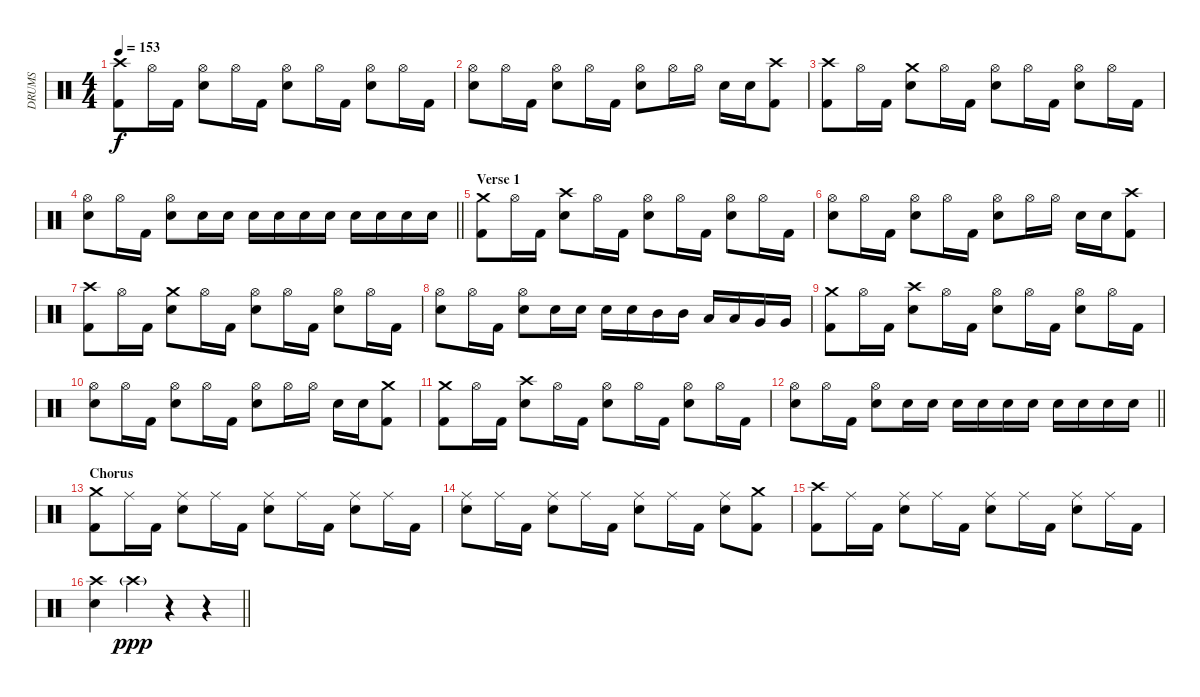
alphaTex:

\track ("DRUMS" "DRUMS") {instrument percussion}
\staff {score}
\articulation defaults
\ts (4 4)
\tempo 153
\clef neutral
\ks c
("Crash high (hit)" "Kick (hit) 2").8{dy f} "Hi-Hat (open)".16 "Kick (hit) 2".16 ("Hi-Hat (open)" "Snare (hit) 2").8 "Hi-Hat (open)".16 "Kick (hit) 2".16 ("Hi-Hat (open)" "Snare (hit) 2").8 "Hi-Hat (open)".16 "Kick (hit) 2".16 ("Hi-Hat (open)" "Snare (hit) 2").8 "Hi-Hat (open)".16 "Kick (hit) 2".16 |
("Hi-Hat (open)" "Snare (hit) 2").8 "Hi-Hat (open)".16 "Kick (hit) 2".16 ("Hi-Hat (open)" "Snare (hit) 2").8 "Hi-Hat (open)".16 "Kick (hit) 2".16 ("Hi-Hat (open)" "Snare (hit) 2").8 "Hi-Hat (open)".16 "Hi-Hat (open)".16 "Snare (hit) 2".16 "Snare (hit) 2".16 ("Crash high (hit)" "Kick (hit) 2").8 |
("Crash high (hit)" "Kick (hit) 2").8 "Hi-Hat (open)".16 "Kick (hit) 2".16 ("Crash medium (hit)" "Snare (hit) 2").8 "Hi-Hat (open)".16 "Kick (hit) 2".16 ("Hi-Hat (open)" "Snare (hit) 2").8 "Hi-Hat (open)".16 "Kick (hit) 2".16 ("Hi-Hat (open)" "Snare (hit) 2").8 "Hi-Hat (open)".16 "Kick (hit) 2".16 |
\barLineRight lightlight
("Hi-Hat (open)" "Snare (hit) 2").8 "Hi-Hat (open)".16 "Kick (hit) 2".16 ("Hi-Hat (open)" "Snare (hit) 2").8 "Snare (hit) 2".16 "Snare (hit) 2".16 "Snare (hit) 2".16 "Snare (hit) 2".16 "Snare (hit) 2".16 "Snare (hit) 2".16 "Snare (hit) 2".16 "Snare (hit) 2".16 "Snare (hit) 2".16 "Snare (hit) 2".16 |
\section ("" "Verse 1")
("Crash medium (hit)" "Kick (hit) 2").8 "Hi-Hat (open)".16 "Kick (hit) 2".16 ("Crash high (hit)" "Snare (hit) 2").8 "Hi-Hat (open)".16 "Kick (hit) 2".16 ("Hi-Hat (open)" "Snare (hit) 2").8 "Hi-Hat (open)".16 "Kick (hit) 2".16 ("Hi-Hat (open)" "Snare (hit) 2").8 "Hi-Hat (open)".16 "Kick (hit) 2".16 |
("Hi-Hat (open)" "Snare (hit) 2").8 "Hi-Hat (open)".16 "Kick (hit) 2".16 ("Hi-Hat (open)" "Snare (hit) 2").8 "Hi-Hat (open)".16 "Kick (hit) 2".16 ("Hi-Hat (open)" "Snare (hit) 2").8 "Hi-Hat (open)".16 "Hi-Hat (open)".16 "Snare (hit) 2".16 "Snare (hit) 2".16 ("Crash high (hit)" "Kick (hit) 2").8 |
("Crash high (hit)" "Kick (hit) 2").8 "Hi-Hat (open)".16 "Kick (hit) 2".16 ("Crash medium (hit)" "Snare (hit) 2").8 "Hi-Hat (open)".16 "Kick (hit) 2".16 ("Hi-Hat (open)" "Snare (hit) 2").8 "Hi-Hat (open)".16 "Kick (hit) 2".16 ("Hi-Hat (open)" "Snare (hit) 2").8 "Hi-Hat (open)".16 "Kick (hit) 2".16 |
("Hi-Hat (open)" "Snare (hit) 2").8 "Hi-Hat (open)".16 "Kick (hit) 2".16 ("Hi-Hat (open)" "Snare (hit) 2").8 "Snare (hit) 2".16 "Snare (hit) 2".16 "Snare (hit) 2".16 "Snare (hit) 2".16 "Mid Tom (hit)".16 "Mid Tom (hit)".16 "Low Tom (hit)".16 "Low Tom (hit)".16 "Very Low Tom (hit)".16 "Very Low Tom (hit)".16 |
("Crash medium (hit)" "Kick (hit) 2").8 "Hi-Hat (open)".16 "Kick (hit) 2".16 ("Crash high (hit)" "Snare (hit) 2").8 "Hi-Hat (open)".16 "Kick (hit) 2".16 ("Hi-Hat (open)" "Snare (hit) 2").8 "Hi-Hat (open)".16 "Kick (hit) 2".16 ("Hi-Hat (open)" "Snare (hit) 2").8 "Hi-Hat (open)".16 "Kick (hit) 2".16 |
("Hi-Hat (open)" "Snare (hit) 2").8 "Hi-Hat (open)".16 "Kick (hit) 2".16 ("Hi-Hat (open)" "Snare (hit) 2").8 "Hi-Hat (open)".16 "Kick (hit) 2".16 ("Hi-Hat (open)" "Snare (hit) 2").8 "Hi-Hat (open)".16 "Hi-Hat (open)".16 "Snare (hit) 2".16 "Snare (hit) 2".16 ("Crash medium (hit)" "Kick (hit) 2").8 |
("Crash medium (hit)" "Kick (hit) 2").8 "Hi-Hat (open)".16 "Kick (hit) 2".16 ("Crash high (hit)" "Snare (hit) 2").8 "Hi-Hat (open)".16 "Kick (hit) 2".16 ("Hi-Hat (open)" "Snare (hit) 2").8 "Hi-Hat (open)".16 "Kick (hit) 2".16 ("Hi-Hat (open)" "Snare (hit) 2").8 "Hi-Hat (open)".16 "Kick (hit) 2".16 |
\barLineRight lightlight
("Hi-Hat (open)" "Snare (hit) 2").8 "Hi-Hat (open)".16 "Kick (hit) 2".16 ("Hi-Hat (open)" "Snare (hit) 2").8 "Snare (hit) 2".16 "Snare (hit) 2".16 "Snare (hit) 2".16 "Snare (hit) 2".16 "Snare (hit) 2".16 "Snare (hit) 2".16 "Snare (hit) 2".16 "Snare (hit) 2".16 "Snare (hit) 2".16 "Snare (hit) 2".16 |
\section ("" "Chorus")
("Crash medium (hit)" "Kick (hit) 2").8 "Ride (middle)".16 "Kick (hit) 2".16 ("Ride (middle)" "Snare (hit) 2").8 "Ride (middle)".16 "Kick (hit) 2".16 ("Ride (middle)" "Snare (hit) 2").8 "Ride (middle)".16 "Kick (hit) 2".16 ("Ride (middle)" "Snare (hit) 2").8 "Ride (middle)".16 "Kick (hit) 2".16 |
("Ride (middle)" "Snare (hit) 2").8 "Ride (middle)".16 "Kick (hit) 2".16 ("Ride (middle)" "Snare (hit) 2").8 "Ride (middle)".16 "Kick (hit) 2".16 ("Ride (middle)" "Snare (hit) 2").8 "Ride (middle)".16 "Kick (hit) 2".16 ("Ride (middle)" "Snare (hit) 2").8 ("Crash medium (hit)" "Kick (hit) 2").8 |
("Crash high (hit)" "Kick (hit) 2").8 "Ride (middle)".16 "Kick (hit) 2".16 ("Ride (middle)" "Snare (hit) 2").8 "Ride (middle)".16 "Kick (hit) 2".16 ("Ride (middle)" "Snare (hit) 2").8 "Ride (middle)".16 "Kick (hit) 2".16 ("Ride (middle)" "Snare (hit) 2").8 "Ride (middle)".16 "Kick (hit) 2".16 |
\barLineRight lightlight
("Crash high (hit)" "Snare (hit) 2").4 "Crash high (hit)"{g}.4{dy ppp} r.4 r.4
